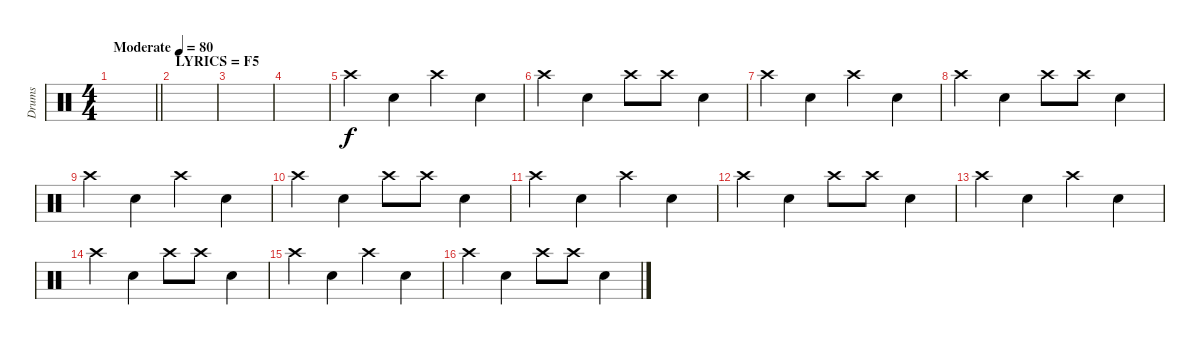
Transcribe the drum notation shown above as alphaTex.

\track ("Drums" "Drums") {instrument percussion}
\staff {score}
\articulation defaults
\ts (4 4)
\tempo (80 "Moderate")
\clef neutral
\barLineRight lightlight
\ks c
|
\section ("" "LYRICS = F5")
|
|
|
"Crash high (hit)".4 "Snare (hit) 2".4 "Crash high (hit)".4 "Snare (hit) 2".4 |
"Crash high (hit)".4 "Snare (hit) 2".4 "Crash high (hit)".8 "Crash high (hit)".8 "Snare (hit) 2".4 |
"Crash high (hit)".4 "Snare (hit) 2".4 "Crash high (hit)".4 "Snare (hit) 2".4 |
"Crash high (hit)".4 "Snare (hit) 2".4 "Crash high (hit)".8 "Crash high (hit)".8 "Snare (hit) 2".4 |
"Crash high (hit)".4 "Snare (hit) 2".4 "Crash high (hit)".4 "Snare (hit) 2".4 |
"Crash high (hit)".4 "Snare (hit) 2".4 "Crash high (hit)".8 "Crash high (hit)".8 "Snare (hit) 2".4 |
"Crash high (hit)".4 "Snare (hit) 2".4 "Crash high (hit)".4 "Snare (hit) 2".4 |
"Crash high (hit)".4 "Snare (hit) 2".4 "Crash high (hit)".8 "Crash high (hit)".8 "Snare (hit) 2".4 |
"Crash high (hit)".4 "Snare (hit) 2".4 "Crash high (hit)".4 "Snare (hit) 2".4 |
"Crash high (hit)".4 "Snare (hit) 2".4 "Crash high (hit)".8 "Crash high (hit)".8 "Snare (hit) 2".4 |
"Crash high (hit)".4 "Snare (hit) 2".4 "Crash high (hit)".4 "Snare (hit) 2".4 |
"Crash high (hit)".4 "Snare (hit) 2".4 "Crash high (hit)".8 "Crash high (hit)".8 "Snare (hit) 2".4
